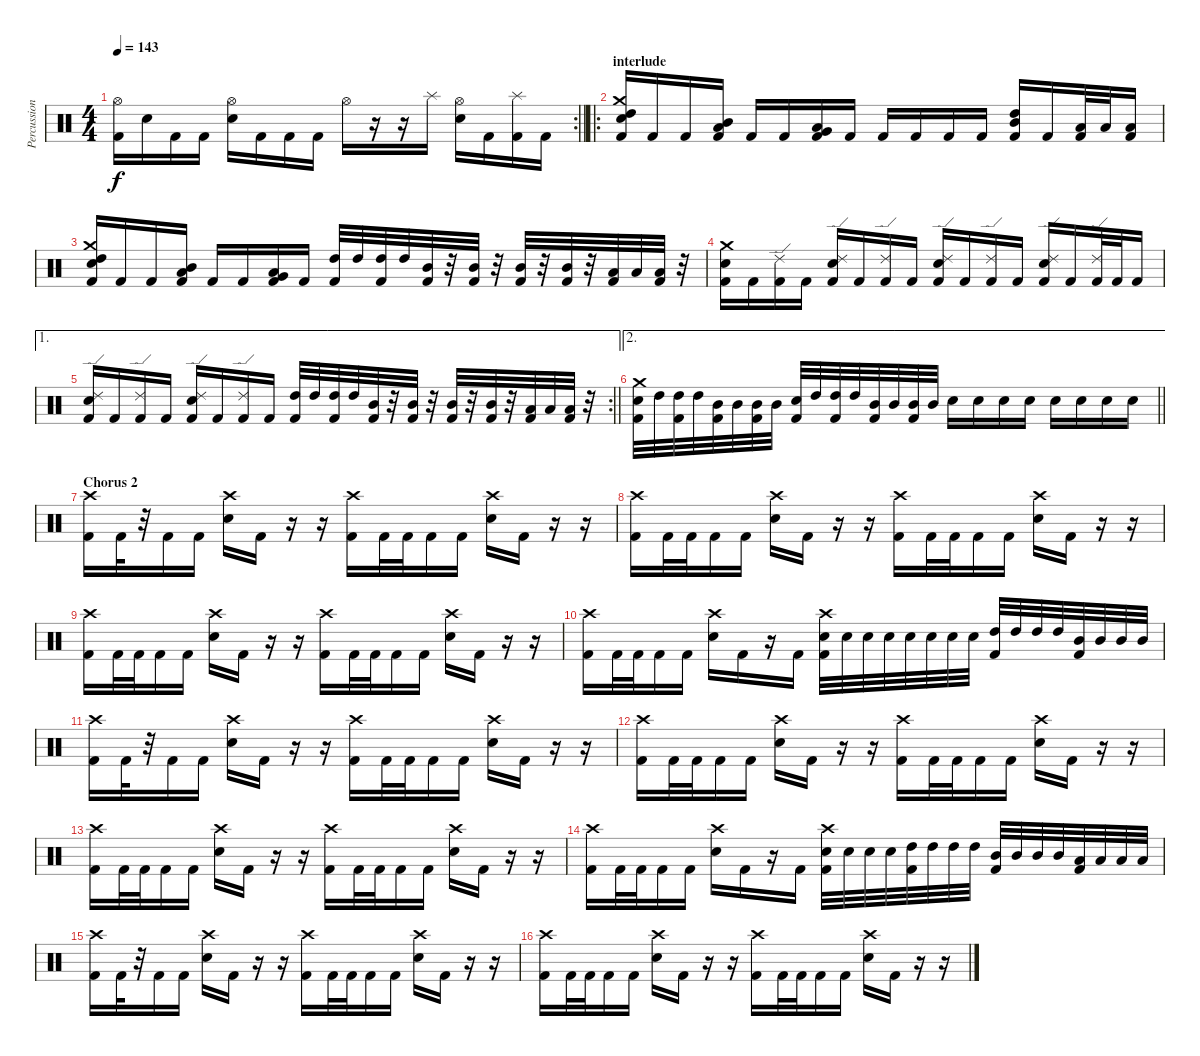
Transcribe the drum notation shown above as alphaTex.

\track ("Percussion" "Percussion") {instrument percussion}
\staff {score}
\articulation defaults
\rc 2
\ts (4 4)
\tempo 143
\clef neutral
\barLineRight lightlight
\ks c
("Hi-Hat (open)" "Kick (hit) 2").16{dy f} "Electric Snare (hit)".16 "Kick (hit) 2".16 "Kick (hit) 2".16 ("Hi-Hat (open)" "Electric Snare (hit)").16 "Kick (hit) 2".16 "Kick (hit) 2".16 "Kick (hit) 2".16 "Hi-Hat (open)".16 r.16 r.16 "Splash (hit)".16 ("Hi-Hat (open)" "Electric Snare (hit)").16 "Kick (hit) 2".16 ("Splash (hit)" "Kick (hit) 2").16 "Kick (hit) 2".16 |
\ro
\section ("" "interlude")
("Crash medium (hit)" "High Tom (hit)" "Electric Snare (hit)" "Kick (hit) 2").16 "Kick (hit) 2".16 "Kick (hit) 2".16 ("Mid Tom (hit)" "Low Tom (hit)" "Kick (hit) 2").16 "Kick (hit) 2".16 "Kick (hit) 2".16 ("Low Tom (hit)" "Very Low Tom (hit)" "Kick (hit) 2").16 "Kick (hit) 2".16 "Kick (hit) 2".16 "Kick (hit) 2".16 "Kick (hit) 2".16 "Kick (hit) 2".16 ("High Tom (hit)" "Mid Tom (hit)" "Kick (hit) 2").16 "Kick (hit) 2".16 ("Low Tom (hit)" "Kick (hit) 2").32 "Low Tom (hit)".32 ("Low Tom (hit)" "Kick (hit) 2").16 |
("Crash medium (hit)" "High Tom (hit)" "Electric Snare (hit)" "Kick (hit) 2").16 "Kick (hit) 2".16 "Kick (hit) 2".16 ("Mid Tom (hit)" "Low Tom (hit)" "Kick (hit) 2").16 "Kick (hit) 2".16 "Kick (hit) 2".16 ("Low Tom (hit)" "Very Low Tom (hit)" "Kick (hit) 2").16 "Kick (hit) 2".16 ("High Tom (hit)" "Kick (hit) 2").32 "High Tom (hit)".32 ("High Tom (hit)" "Kick (hit) 2").32 "High Tom (hit)".32 ("Mid Tom (hit)" "Kick (hit) 2").32 r.32 ("Mid Tom (hit)" "Kick (hit) 2").32 r.32 ("Mid Tom (hit)" "Kick (hit) 2").32 r.32 ("Mid Tom (hit)" "Kick (hit) 2").32 r.32 ("Low Tom (hit)" "Kick (hit) 2").32 "Low Tom (hit)".32 ("Low Tom (hit)" "Kick (hit) 2").32 r.32 |
("Crash medium (hit)" "Electric Snare (hit)" "Kick (hit) 2").16 "Kick (hit) 2".16 ("Ride (edge) 2" "Kick (hit) 2").16 "Kick (hit) 2".16 ("Ride (edge) 2" "Electric Snare (hit)" "Kick (hit) 2").16 "Kick (hit) 2".16 ("Ride (edge) 2" "Kick (hit) 2").16 "Kick (hit) 2".16 ("Ride (edge) 2" "Electric Snare (hit)" "Kick (hit) 2").16 "Kick (hit) 2".16 ("Ride (edge) 2" "Kick (hit) 2").16 "Kick (hit) 2".16 ("Ride (edge) 2" "Electric Snare (hit)" "Kick (hit) 2").16 "Kick (hit) 2".16 ("Ride (edge) 2" "Kick (hit) 2").32 "Kick (hit) 2".32 "Kick (hit) 2".16 |
\ae 1
\rc 2
\barLineRight lightlight
("Ride (edge) 2" "Electric Snare (hit)" "Kick (hit) 2").16 "Kick (hit) 2".16 ("Ride (edge) 2" "Kick (hit) 2").16 "Kick (hit) 2".16 ("Ride (edge) 2" "Electric Snare (hit)" "Kick (hit) 2").16 "Kick (hit) 2".16 ("Ride (edge) 2" "Kick (hit) 2").16 "Kick (hit) 2".16 ("High Tom (hit)" "Kick (hit) 2").32 "High Tom (hit)".32 ("High Tom (hit)" "Kick (hit) 2").32 "High Tom (hit)".32 ("Mid Tom (hit)" "Kick (hit) 2").32 r.32 ("Mid Tom (hit)" "Kick (hit) 2").32 r.32 ("Mid Tom (hit)" "Kick (hit) 2").32 r.32 ("Mid Tom (hit)" "Kick (hit) 2").32 r.32 ("Low Tom (hit)" "Kick (hit) 2").32 "Low Tom (hit)".32 ("Low Tom (hit)" "Kick (hit) 2").32 r.32 |
\ae 2
\barLineRight lightlight
("Crash medium (hit)" "Electric Snare (hit)" "Kick (hit) 2").32 "High Tom (hit)".32 ("High Tom (hit)" "Kick (hit) 2").32 "High Tom (hit)".32 ("Mid Tom (hit)" "Kick (hit) 2").32 "Mid Tom (hit)".32 ("Mid Tom (hit)" "Kick (hit) 2").32 "Mid Tom (hit)".32 ("Electric Snare (hit)" "Kick (hit) 2").32 "High Tom (hit)".32 ("High Tom (hit)" "Kick (hit) 2").32 "High Tom (hit)".32 ("Mid Tom (hit)" "Kick (hit) 2").32 "Mid Tom (hit)".32 ("Mid Tom (hit)" "Kick (hit) 2").32 "Mid Tom (hit)".32 "Electric Snare (hit)".16 "Electric Snare (hit)".16 "Electric Snare (hit)".16 "Electric Snare (hit)".16 "Electric Snare (hit)".16 "Electric Snare (hit)".16 "Electric Snare (hit)".16 "Electric Snare (hit)".16 |
\section ("" "Chorus 2")
("Crash high (hit)" "Kick (hit) 2").16 "Kick (hit) 2".32 r.32 "Kick (hit) 2".16 "Kick (hit) 2".16 ("Crash high (hit)" "Electric Snare (hit)").16 "Kick (hit) 2".16 r.16 r.16 ("Crash high (hit)" "Kick (hit) 2").16 "Kick (hit) 2".32 "Kick (hit) 2".32 "Kick (hit) 2".16 "Kick (hit) 2".16 ("Crash high (hit)" "Electric Snare (hit)").16 "Kick (hit) 2".16 r.16 r.16 |
("Crash high (hit)" "Kick (hit) 2").16 "Kick (hit) 2".32 "Kick (hit) 2".32 "Kick (hit) 2".16 "Kick (hit) 2".16 ("Crash high (hit)" "Electric Snare (hit)").16 "Kick (hit) 2".16 r.16 r.16 ("Crash high (hit)" "Kick (hit) 2").16 "Kick (hit) 2".32 "Kick (hit) 2".32 "Kick (hit) 2".16 "Kick (hit) 2".16 ("Crash high (hit)" "Electric Snare (hit)").16 "Kick (hit) 2".16 r.16 r.16 |
("Crash high (hit)" "Kick (hit) 2").16 "Kick (hit) 2".32 "Kick (hit) 2".32 "Kick (hit) 2".16 "Kick (hit) 2".16 ("Crash high (hit)" "Electric Snare (hit)").16 "Kick (hit) 2".16 r.16 r.16 ("Crash high (hit)" "Kick (hit) 2").16 "Kick (hit) 2".32 "Kick (hit) 2".32 "Kick (hit) 2".16 "Kick (hit) 2".16 ("Crash high (hit)" "Electric Snare (hit)").16 "Kick (hit) 2".16 r.16 r.16 |
("Crash high (hit)" "Kick (hit) 2").16 "Kick (hit) 2".32 "Kick (hit) 2".32 "Kick (hit) 2".16 "Kick (hit) 2".16 ("Crash high (hit)" "Electric Snare (hit)").16 "Kick (hit) 2".16 r.16 "Kick (hit) 2".16 ("Crash high (hit)" "Electric Snare (hit)" "Kick (hit) 2").32 "Electric Snare (hit)".32 "Electric Snare (hit)".32 "Electric Snare (hit)".32 "Electric Snare (hit)".32 "Electric Snare (hit)".32 "Electric Snare (hit)".32 "Electric Snare (hit)".32 ("High Tom (hit)" "Kick (hit) 2").32 "High Tom (hit)".32 "High Tom (hit)".32 "High Tom (hit)".32 ("Mid Tom (hit)" "Kick (hit) 2").32 "Mid Tom (hit)".32 "Mid Tom (hit)".32 "Mid Tom (hit)".32 |
("Crash high (hit)" "Kick (hit) 2").16 "Kick (hit) 2".32 r.32 "Kick (hit) 2".16 "Kick (hit) 2".16 ("Crash high (hit)" "Electric Snare (hit)").16 "Kick (hit) 2".16 r.16 r.16 ("Crash high (hit)" "Kick (hit) 2").16 "Kick (hit) 2".32 "Kick (hit) 2".32 "Kick (hit) 2".16 "Kick (hit) 2".16 ("Crash high (hit)" "Electric Snare (hit)").16 "Kick (hit) 2".16 r.16 r.16 |
("Crash high (hit)" "Kick (hit) 2").16 "Kick (hit) 2".32 "Kick (hit) 2".32 "Kick (hit) 2".16 "Kick (hit) 2".16 ("Crash high (hit)" "Electric Snare (hit)").16 "Kick (hit) 2".16 r.16 r.16 ("Crash high (hit)" "Kick (hit) 2").16 "Kick (hit) 2".32 "Kick (hit) 2".32 "Kick (hit) 2".16 "Kick (hit) 2".16 ("Crash high (hit)" "Electric Snare (hit)").16 "Kick (hit) 2".16 r.16 r.16 |
("Crash high (hit)" "Kick (hit) 2").16 "Kick (hit) 2".32 "Kick (hit) 2".32 "Kick (hit) 2".16 "Kick (hit) 2".16 ("Crash high (hit)" "Electric Snare (hit)").16 "Kick (hit) 2".16 r.16 r.16 ("Crash high (hit)" "Kick (hit) 2").16 "Kick (hit) 2".32 "Kick (hit) 2".32 "Kick (hit) 2".16 "Kick (hit) 2".16 ("Crash high (hit)" "Electric Snare (hit)").16 "Kick (hit) 2".16 r.16 r.16 |
("Crash high (hit)" "Kick (hit) 2").16 "Kick (hit) 2".32 "Kick (hit) 2".32 "Kick (hit) 2".16 "Kick (hit) 2".16 ("Crash high (hit)" "Electric Snare (hit)").16 "Kick (hit) 2".16 r.16 "Kick (hit) 2".16 ("Crash high (hit)" "Electric Snare (hit)" "Kick (hit) 2").32 "Electric Snare (hit)".32 "Electric Snare (hit)".32 "Electric Snare (hit)".32 ("High Tom (hit)" "Kick (hit) 2").32 "High Tom (hit)".32 "High Tom (hit)".32 "High Tom (hit)".32 ("Mid Tom (hit)" "Kick (hit) 2").32 "Mid Tom (hit)".32 "Mid Tom (hit)".32 "Mid Tom (hit)".32 ("Low Tom (hit)" "Kick (hit) 2").32 "Low Tom (hit)".32 "Low Tom (hit)".32 "Low Tom (hit)".32 |
("Crash high (hit)" "Kick (hit) 2").16 "Kick (hit) 2".32 r.32 "Kick (hit) 2".16 "Kick (hit) 2".16 ("Crash high (hit)" "Electric Snare (hit)").16 "Kick (hit) 2".16 r.16 r.16 ("Crash high (hit)" "Kick (hit) 2").16 "Kick (hit) 2".32 "Kick (hit) 2".32 "Kick (hit) 2".16 "Kick (hit) 2".16 ("Crash high (hit)" "Electric Snare (hit)").16 "Kick (hit) 2".16 r.16 r.16 |
("Crash high (hit)" "Kick (hit) 2").16 "Kick (hit) 2".32 "Kick (hit) 2".32 "Kick (hit) 2".16 "Kick (hit) 2".16 ("Crash high (hit)" "Electric Snare (hit)").16 "Kick (hit) 2".16 r.16 r.16 ("Crash high (hit)" "Kick (hit) 2").16 "Kick (hit) 2".32 "Kick (hit) 2".32 "Kick (hit) 2".16 "Kick (hit) 2".16 ("Crash high (hit)" "Electric Snare (hit)").16 "Kick (hit) 2".16 r.16 r.16
